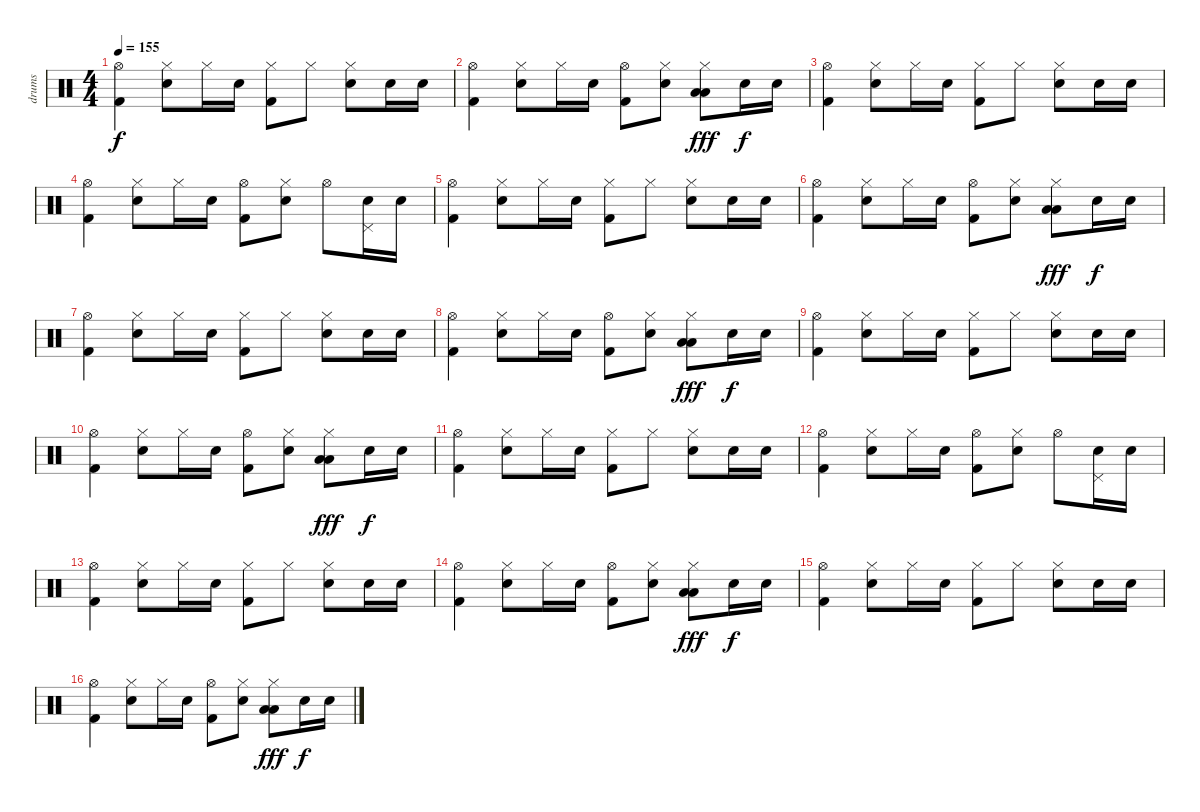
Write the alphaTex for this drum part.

\track ("drums" "drums") {instrument percussion}
\staff {score}
\articulation defaults
\ts (4 4)
\tempo 155
\clef neutral
\ks c
("Kick (hit) 2" "Hi-Hat (open)").4{dy f} ("Electric Snare (hit)" "Hi-Hat (closed)").8 "Hi-Hat (closed)".16 "Electric Snare (hit)".16 ("Kick (hit) 2" "Hi-Hat (closed)").8 "Hi-Hat (closed)".8 ("Electric Snare (hit)" "Hi-Hat (closed)").8 "Electric Snare (hit)".16 "Electric Snare (hit)".16 |
("Hi-Hat (open)" "Kick (hit) 2").4 ("Electric Snare (hit)" "Hi-Hat (closed)").8 "Hi-Hat (closed)".16 "Electric Snare (hit)".16 ("Kick (hit) 2" "Hi-Hat (open)").8 ("Electric Snare (hit)" "Hi-Hat (closed)").8 ("Low Floor Tom (hit)" "Low Tom (hit)" "Hi-Hat (closed)").8{dy fff} "Electric Snare (hit)".16{dy f} "Electric Snare (hit)".16 |
("Kick (hit) 2" "Hi-Hat (open)").4 ("Electric Snare (hit)" "Hi-Hat (closed)").8 "Hi-Hat (closed)".16 "Electric Snare (hit)".16 ("Kick (hit) 2" "Hi-Hat (closed)").8 "Hi-Hat (closed)".8 ("Electric Snare (hit)" "Hi-Hat (closed)").8 "Electric Snare (hit)".16 "Electric Snare (hit)".16 |
("Hi-Hat (open)" "Kick (hit) 2").4 ("Electric Snare (hit)" "Hi-Hat (closed)").8 "Hi-Hat (closed)".16 "Electric Snare (hit)".16 ("Kick (hit) 2" "Hi-Hat (open)").8 ("Electric Snare (hit)" "Hi-Hat (closed)").8 "Hi-Hat (open)".8 ("Electric Snare (hit)" "Pedal Hi-Hat (hit)").16 "Electric Snare (hit)".16 |
("Kick (hit) 2" "Hi-Hat (open)").4 ("Electric Snare (hit)" "Hi-Hat (closed)").8 "Hi-Hat (closed)".16 "Electric Snare (hit)".16 ("Kick (hit) 2" "Hi-Hat (closed)").8 "Hi-Hat (closed)".8 ("Electric Snare (hit)" "Hi-Hat (closed)").8 "Electric Snare (hit)".16 "Electric Snare (hit)".16 |
("Hi-Hat (open)" "Kick (hit) 2").4 ("Electric Snare (hit)" "Hi-Hat (closed)").8 "Hi-Hat (closed)".16 "Electric Snare (hit)".16 ("Kick (hit) 2" "Hi-Hat (open)").8 ("Electric Snare (hit)" "Hi-Hat (closed)").8 ("Low Floor Tom (hit)" "Low Tom (hit)" "Hi-Hat (closed)").8{dy fff} "Electric Snare (hit)".16{dy f} "Electric Snare (hit)".16 |
("Kick (hit) 2" "Hi-Hat (open)").4 ("Electric Snare (hit)" "Hi-Hat (closed)").8 "Hi-Hat (closed)".16 "Electric Snare (hit)".16 ("Kick (hit) 2" "Hi-Hat (closed)").8 "Hi-Hat (closed)".8 ("Electric Snare (hit)" "Hi-Hat (closed)").8 "Electric Snare (hit)".16 "Electric Snare (hit)".16 |
("Hi-Hat (open)" "Kick (hit) 2").4 ("Electric Snare (hit)" "Hi-Hat (closed)").8 "Hi-Hat (closed)".16 "Electric Snare (hit)".16 ("Kick (hit) 2" "Hi-Hat (open)").8 ("Electric Snare (hit)" "Hi-Hat (closed)").8 ("Low Floor Tom (hit)" "Low Tom (hit)" "Hi-Hat (closed)").8{dy fff} "Electric Snare (hit)".16{dy f} "Electric Snare (hit)".16 |
("Kick (hit) 2" "Hi-Hat (open)").4 ("Electric Snare (hit)" "Hi-Hat (closed)").8 "Hi-Hat (closed)".16 "Electric Snare (hit)".16 ("Kick (hit) 2" "Hi-Hat (closed)").8 "Hi-Hat (closed)".8 ("Electric Snare (hit)" "Hi-Hat (closed)").8 "Electric Snare (hit)".16 "Electric Snare (hit)".16 |
("Hi-Hat (open)" "Kick (hit) 2").4 ("Electric Snare (hit)" "Hi-Hat (closed)").8 "Hi-Hat (closed)".16 "Electric Snare (hit)".16 ("Kick (hit) 2" "Hi-Hat (open)").8 ("Electric Snare (hit)" "Hi-Hat (closed)").8 ("Low Floor Tom (hit)" "Low Tom (hit)" "Hi-Hat (closed)").8{dy fff} "Electric Snare (hit)".16{dy f} "Electric Snare (hit)".16 |
("Kick (hit) 2" "Hi-Hat (open)").4 ("Electric Snare (hit)" "Hi-Hat (closed)").8 "Hi-Hat (closed)".16 "Electric Snare (hit)".16 ("Kick (hit) 2" "Hi-Hat (closed)").8 "Hi-Hat (closed)".8 ("Electric Snare (hit)" "Hi-Hat (closed)").8 "Electric Snare (hit)".16 "Electric Snare (hit)".16 |
("Hi-Hat (open)" "Kick (hit) 2").4 ("Electric Snare (hit)" "Hi-Hat (closed)").8 "Hi-Hat (closed)".16 "Electric Snare (hit)".16 ("Kick (hit) 2" "Hi-Hat (open)").8 ("Electric Snare (hit)" "Hi-Hat (closed)").8 "Hi-Hat (open)".8 ("Electric Snare (hit)" "Pedal Hi-Hat (hit)").16 "Electric Snare (hit)".16 |
("Kick (hit) 2" "Hi-Hat (open)").4 ("Electric Snare (hit)" "Hi-Hat (closed)").8 "Hi-Hat (closed)".16 "Electric Snare (hit)".16 ("Kick (hit) 2" "Hi-Hat (closed)").8 "Hi-Hat (closed)".8 ("Electric Snare (hit)" "Hi-Hat (closed)").8 "Electric Snare (hit)".16 "Electric Snare (hit)".16 |
("Hi-Hat (open)" "Kick (hit) 2").4 ("Electric Snare (hit)" "Hi-Hat (closed)").8 "Hi-Hat (closed)".16 "Electric Snare (hit)".16 ("Kick (hit) 2" "Hi-Hat (open)").8 ("Electric Snare (hit)" "Hi-Hat (closed)").8 ("Low Floor Tom (hit)" "Low Tom (hit)" "Hi-Hat (closed)").8{dy fff} "Electric Snare (hit)".16{dy f} "Electric Snare (hit)".16 |
("Kick (hit) 2" "Hi-Hat (open)").4 ("Electric Snare (hit)" "Hi-Hat (closed)").8 "Hi-Hat (closed)".16 "Electric Snare (hit)".16 ("Kick (hit) 2" "Hi-Hat (closed)").8 "Hi-Hat (closed)".8 ("Electric Snare (hit)" "Hi-Hat (closed)").8 "Electric Snare (hit)".16 "Electric Snare (hit)".16 |
("Hi-Hat (open)" "Kick (hit) 2").4 ("Electric Snare (hit)" "Hi-Hat (closed)").8 "Hi-Hat (closed)".16 "Electric Snare (hit)".16 ("Kick (hit) 2" "Hi-Hat (open)").8 ("Electric Snare (hit)" "Hi-Hat (closed)").8 ("Low Floor Tom (hit)" "Low Tom (hit)" "Hi-Hat (closed)").8{dy fff} "Electric Snare (hit)".16{dy f} "Electric Snare (hit)".16
